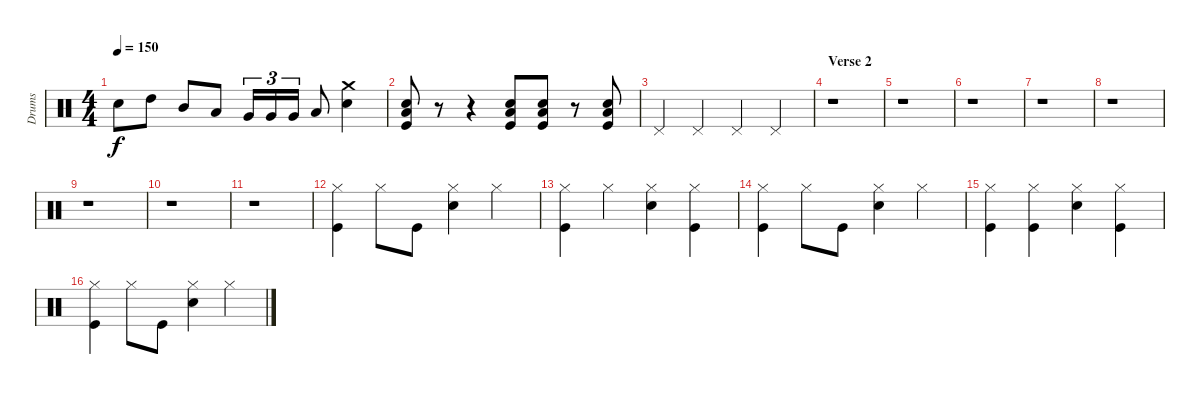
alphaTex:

\track ("Drums" "Drums") {instrument percussion}
\staff {score}
\articulation defaults
\ts (4 4)
\tempo 150
\clef neutral
\ks c "Electric Snare (hit)".8{dy f} "High Tom (hit)".8 "Mid Tom (hit)".8 "Low Tom (hit)".8 "Very Low Tom (hit)".16{tu (3 2)} "Very Low Tom (hit)".16{tu (3 2)} "Very Low Tom (hit)".16{tu (3 2)} "Low Floor Tom (hit)".8
("Crash medium (hit)" "Electric Snare (hit)").4 |
("Electric Snare (hit)" "Low Floor Tom (hit)" "Kick (hit)").8 r.8 r.4 ("Electric Snare (hit)" "Low Floor Tom (hit)" "Kick (hit)").8 ("Electric Snare (hit)" "Low Floor Tom (hit)" "Kick (hit)").8 r.8 ("Electric Snare (hit)" "Low Floor Tom (hit)" "Kick (hit)").8 |
"Pedal Hi-Hat (hit)".4 "Pedal Hi-Hat (hit)".4 "Pedal Hi-Hat (hit)".4 "Pedal Hi-Hat (hit)".4 |
\section ("" "Verse 2")
r.1 |
r.1 |
r.1 |
r.1 |
r.1 |
r.1 |
r.1 |
r.1 |
("Hi-Hat (closed)" "Kick (hit)").4 "Hi-Hat (closed)".8 "Kick (hit)".8 ("Hi-Hat (closed)" "Electric Snare (hit)").4 "Hi-Hat (closed)".4 |
("Hi-Hat (closed)" "Kick (hit)").4 "Hi-Hat (closed)".4 ("Hi-Hat (closed)" "Electric Snare (hit)").4 ("Hi-Hat (closed)" "Kick (hit)").4 |
("Hi-Hat (closed)" "Kick (hit)").4 "Hi-Hat (closed)".8 "Kick (hit)".8 ("Hi-Hat (closed)" "Electric Snare (hit)").4 "Hi-Hat (closed)".4 |
("Hi-Hat (closed)" "Kick (hit)").4 ("Hi-Hat (closed)" "Kick (hit)").4 ("Hi-Hat (closed)" "Electric Snare (hit)").4 ("Hi-Hat (closed)" "Kick (hit)").4 |
("Hi-Hat (closed)" "Kick (hit)").4 "Hi-Hat (closed)".8 "Kick (hit)".8 ("Hi-Hat (closed)" "Electric Snare (hit)").4 "Hi-Hat (closed)".4
